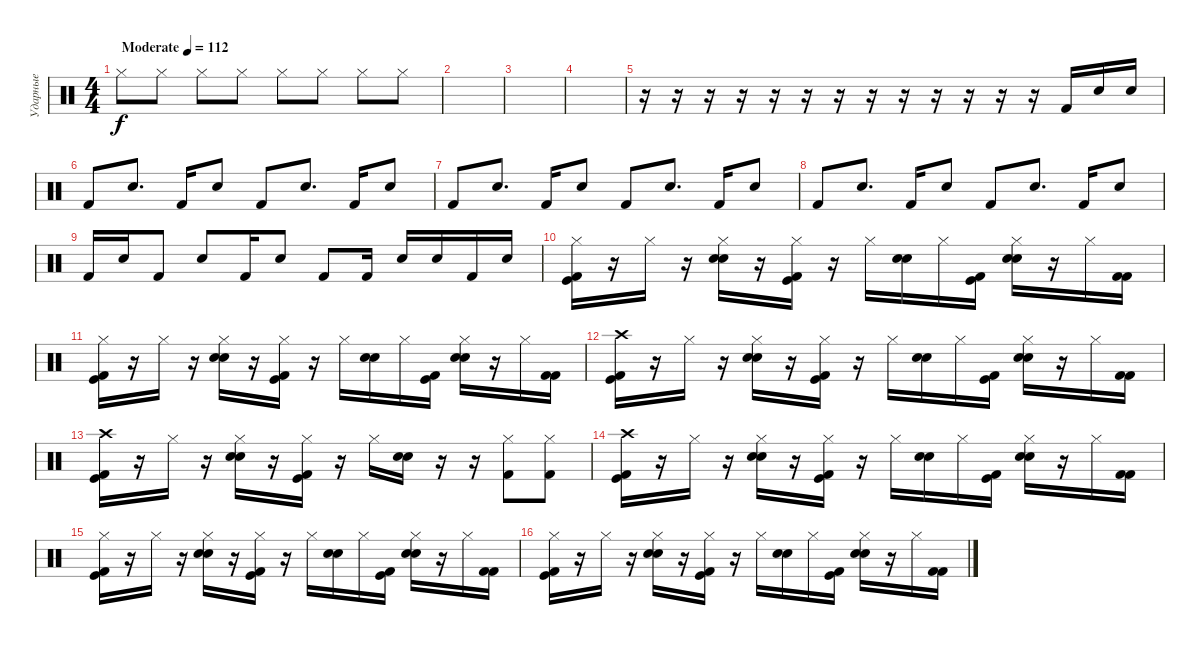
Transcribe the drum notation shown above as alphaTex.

\track ("Ударные" "Ударные") {instrument percussion}
\staff {score}
\articulation defaults
\ts (4 4)
\tempo (112 "Moderate")
\clef neutral
\ks c "Hi-Hat (closed)".8{dy f} "Hi-Hat (closed)".8 "Hi-Hat (closed)".8 "Hi-Hat (closed)".8 "Hi-Hat (closed)".8 "Hi-Hat (closed)".8 "Hi-Hat (closed)".8 "Hi-Hat (closed)".8
|
|
|
|
r.16 r.16 r.16 r.16 r.16 r.16 r.16 r.16 r.16 r.16 r.16 r.16 r.16 "Kick (hit) 2".16 "Electric Snare (hit)".16 "Snare (hit)".16 |
"Kick (hit) 2".8 "Electric Snare (hit)".8{d} "Kick (hit) 2".16 "Electric Snare (hit)".8 "Kick (hit) 2".8 "Electric Snare (hit)".8{d} "Kick (hit) 2".16 "Electric Snare (hit)".8 |
"Kick (hit) 2".8 "Electric Snare (hit)".8{d} "Kick (hit) 2".16 "Electric Snare (hit)".8 "Kick (hit) 2".8 "Electric Snare (hit)".8{d} "Kick (hit) 2".16 "Electric Snare (hit)".8 |
"Kick (hit) 2".8 "Electric Snare (hit)".8{d} "Kick (hit) 2".16 "Electric Snare (hit)".8 "Kick (hit) 2".8 "Electric Snare (hit)".8{d} "Kick (hit) 2".16 "Electric Snare (hit)".8 |
"Kick (hit) 2".16 "Electric Snare (hit)".16 "Kick (hit) 2".8 "Electric Snare (hit)".8 "Kick (hit) 2".16 "Electric Snare (hit)".8 "Kick (hit) 2".8 "Kick (hit) 2".16 "Electric Snare (hit)".16 "Electric Snare (hit)".16 "Kick (hit) 2".16 "Electric Snare (hit)".16 |
("Hi-Hat (closed)" "Kick (hit)" "Kick (hit) 2").16 r.16 "Hi-Hat (closed)".16 r.16 ("Hi-Hat (closed)" "Electric Snare (hit)" "Snare (hit) 2").16 r.16 ("Hi-Hat (closed)" "Kick (hit)" "Kick (hit) 2").16 r.16 "Hi-Hat (closed)".16 ("Snare (hit) 2" "Electric Snare (hit)").16 "Hi-Hat (closed)".16 ("Kick (hit)" "Kick (hit) 2").16 ("Hi-Hat (closed)" "Electric Snare (hit)" "Snare (hit) 2").16 r.16 "Hi-Hat (closed)".16 ("Kick (hit) 2" "Kick (hit) 2").16 |
("Hi-Hat (closed)" "Kick (hit)" "Kick (hit) 2").16 r.16 "Hi-Hat (closed)".16 r.16 ("Hi-Hat (closed)" "Electric Snare (hit)" "Snare (hit) 2").16 r.16 ("Hi-Hat (closed)" "Kick (hit)" "Kick (hit) 2").16 r.16 "Hi-Hat (closed)".16 ("Snare (hit) 2" "Electric Snare (hit)").16 "Hi-Hat (closed)".16 ("Kick (hit)" "Kick (hit) 2").16 ("Hi-Hat (closed)" "Electric Snare (hit)" "Snare (hit) 2").16 r.16 "Hi-Hat (closed)".16 ("Kick (hit) 2" "Kick (hit) 2").16 |
("Crash high (hit)" "Kick (hit)" "Kick (hit) 2").16 r.16 "Hi-Hat (closed)".16 r.16 ("Hi-Hat (closed)" "Electric Snare (hit)" "Snare (hit) 2").16 r.16 ("Hi-Hat (closed)" "Kick (hit)" "Kick (hit) 2").16 r.16 "Hi-Hat (closed)".16 ("Snare (hit) 2" "Electric Snare (hit)").16 "Hi-Hat (closed)".16 ("Kick (hit)" "Kick (hit) 2").16 ("Hi-Hat (closed)" "Electric Snare (hit)" "Snare (hit) 2").16 r.16 "Hi-Hat (closed)".16 ("Kick (hit) 2" "Kick (hit) 2").16 |
("Crash high (hit)" "Kick (hit)" "Kick (hit) 2").16 r.16 "Hi-Hat (closed)".16 r.16 ("Hi-Hat (closed)" "Electric Snare (hit)" "Snare (hit) 2").16 r.16 ("Hi-Hat (closed)" "Kick (hit)" "Kick (hit) 2").16 r.16 "Hi-Hat (closed)".16 ("Snare (hit) 2" "Electric Snare (hit)").16 r.16 r.16 ("Kick (hit) 2" "Hi-Hat (closed)").8 ("Kick (hit) 2" "Hi-Hat (closed)").8 |
("Crash high (hit)" "Kick (hit)" "Kick (hit) 2").16 r.16 "Hi-Hat (closed)".16 r.16 ("Hi-Hat (closed)" "Electric Snare (hit)" "Snare (hit) 2").16 r.16 ("Hi-Hat (closed)" "Kick (hit)" "Kick (hit) 2").16 r.16 "Hi-Hat (closed)".16 ("Snare (hit) 2" "Electric Snare (hit)").16 "Hi-Hat (closed)".16 ("Kick (hit)" "Kick (hit) 2").16 ("Hi-Hat (closed)" "Electric Snare (hit)" "Snare (hit) 2").16 r.16 "Hi-Hat (closed)".16 ("Kick (hit) 2" "Kick (hit) 2").16 |
("Hi-Hat (closed)" "Kick (hit)" "Kick (hit) 2").16 r.16 "Hi-Hat (closed)".16 r.16 ("Hi-Hat (closed)" "Electric Snare (hit)" "Snare (hit) 2").16 r.16 ("Hi-Hat (closed)" "Kick (hit)" "Kick (hit) 2").16 r.16 "Hi-Hat (closed)".16 ("Snare (hit) 2" "Electric Snare (hit)").16 "Hi-Hat (closed)".16 ("Kick (hit)" "Kick (hit) 2").16 ("Hi-Hat (closed)" "Electric Snare (hit)" "Snare (hit) 2").16 r.16 "Hi-Hat (closed)".16 ("Kick (hit) 2" "Kick (hit) 2").16 |
("Hi-Hat (closed)" "Kick (hit)" "Kick (hit) 2").16 r.16 "Hi-Hat (closed)".16 r.16 ("Hi-Hat (closed)" "Electric Snare (hit)" "Snare (hit) 2").16 r.16 ("Hi-Hat (closed)" "Kick (hit)" "Kick (hit) 2").16 r.16 "Hi-Hat (closed)".16 ("Snare (hit) 2" "Electric Snare (hit)").16 "Hi-Hat (closed)".16 ("Kick (hit)" "Kick (hit) 2").16 ("Hi-Hat (closed)" "Electric Snare (hit)" "Snare (hit) 2").16 r.16 "Hi-Hat (closed)".16 ("Kick (hit) 2" "Kick (hit) 2").16
